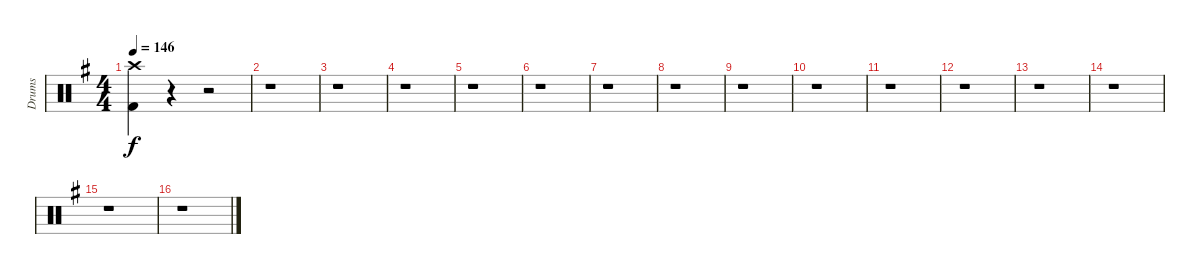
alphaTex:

\track ("Drums" "Drums") {instrument percussion}
\staff {score}
\articulation defaults
\ts (4 4)
\tempo 146
\clef neutral
\ks g
("Kick (hit) 2" "Crash high (hit)").4{dy f} r.4 r.2 |
r.1 |
r.1 |
r.1 |
r.1 |
r.1 |
r.1 |
r.1 |
r.1 |
r.1 |
r.1 |
r.1 |
r.1 |
r.1 |
r.1 |
r.1
